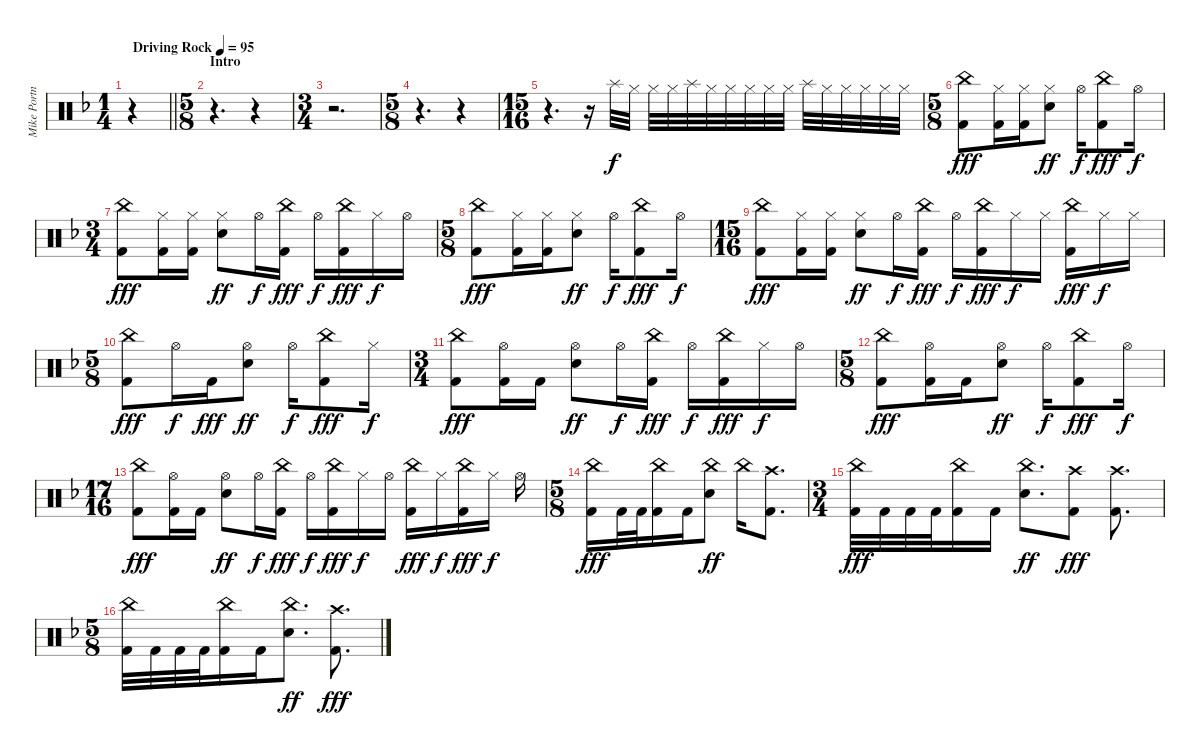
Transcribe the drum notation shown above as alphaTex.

\track ("Mike Portnoy" "Mike Portn") {instrument percussion}
\staff {score}
\articulation defaults
\ts (1 4)
\tempo (95 "Driving Rock")
\clef neutral
\barLineRight lightlight
\ks f
r.4{dy f} |
\ts (5 8)
\section ("" "Intro")
r.4{d} r.4 |
\ts (3 4)
r.2{d} |
\ts (5 8)
r.4{d} r.4 |
\ts (15 16)
r.4{d} r.16 "Splash (hit)".32 "Hi-Hat (closed)".32 "Hi-Hat (closed)".32 "Hi-Hat (closed)".32 "Splash (hit)".32 "Hi-Hat (closed)".32 "Hi-Hat (closed)".32 "Hi-Hat (closed)".32 "Hi-Hat (closed)".32 "Hi-Hat (closed)".32 "Splash (hit)".32 "Hi-Hat (closed)".32 "Hi-Hat (closed)".32 "Hi-Hat (closed)".32 "Hi-Hat (closed)".32 "Hi-Hat (closed)".32 |
\ts (5 8)
("China (hit)" "Kick (hit) 2").8{dy fff} ("Hi-Hat (closed)" "Kick (hit) 2").16 ("Hi-Hat (closed)" "Kick (hit) 2").16 ("Hi-Hat (closed)" "Electric Snare (hit)").8{dy ff} "Hi-Hat (open)".16{dy f} ("China (hit)" "Kick (hit) 2").8{dy fff} "Hi-Hat (open)".16{dy f} |
\ts (3 4)
("China (hit)" "Kick (hit) 2").8{dy fff} ("Hi-Hat (closed)" "Kick (hit) 2").16 ("Hi-Hat (closed)" "Kick (hit) 2").16 ("Hi-Hat (closed)" "Electric Snare (hit)").8{dy ff} "Hi-Hat (open)".16{dy f} ("China (hit)" "Kick (hit) 2").16{dy fff} "Hi-Hat (open)".16{dy f} ("China (hit)" "Kick (hit) 2").16{dy fff} "Hi-Hat (closed)".16{dy f} "Hi-Hat (open)".16 |
\ts (5 8)
("China (hit)" "Kick (hit) 2").8{dy fff} ("Hi-Hat (closed)" "Kick (hit) 2").16 ("Hi-Hat (closed)" "Kick (hit) 2").16 ("Hi-Hat (closed)" "Electric Snare (hit)").8{dy ff} "Hi-Hat (open)".16{dy f} ("China (hit)" "Kick (hit) 2").8{dy fff} "Hi-Hat (open)".16{dy f} |
\ts (15 16)
("China (hit)" "Kick (hit) 2").8{dy fff} ("Hi-Hat (closed)" "Kick (hit) 2").16 ("Hi-Hat (closed)" "Kick (hit) 2").16 ("Hi-Hat (closed)" "Electric Snare (hit)").8{dy ff} "Hi-Hat (open)".16{dy f} ("China (hit)" "Kick (hit) 2").16{dy fff} "Hi-Hat (open)".16{dy f} ("China (hit)" "Kick (hit) 2").16{dy fff} "Hi-Hat (closed)".16{dy f} "Hi-Hat (closed)".16 ("China (hit)" "Kick (hit) 2").16{dy fff} "Hi-Hat (closed)".16{dy f} "Hi-Hat (closed)".16 |
\ts (5 8)
("China (hit)" "Kick (hit) 2").8{dy fff} "Hi-Hat (open)".16{dy f} "Kick (hit) 2".16{dy fff} ("Hi-Hat (open)" "Electric Snare (hit)").8{dy ff} "Hi-Hat (open)".16{dy f} ("China (hit)" "Kick (hit) 2").8{dy fff} "Hi-Hat (closed)".16{dy f} |
\ts (3 4)
("China (hit)" "Kick (hit) 2").8{dy fff} ("Hi-Hat (open)" "Kick (hit) 2").16 "Kick (hit) 2".16 ("Hi-Hat (open)" "Electric Snare (hit)").8{dy ff} "Hi-Hat (open)".16{dy f} ("China (hit)" "Kick (hit) 2").16{dy fff} "Hi-Hat (open)".16{dy f} ("China (hit)" "Kick (hit) 2").16{dy fff} "Hi-Hat (closed)".16{dy f} "Hi-Hat (open)".16 |
\ts (5 8)
("China (hit)" "Kick (hit) 2").8{dy fff} ("Hi-Hat (open)" "Kick (hit) 2").16 "Kick (hit) 2".16 ("Hi-Hat (open)" "Electric Snare (hit)").8{dy ff} "Hi-Hat (open)".16{dy f} ("China (hit)" "Kick (hit) 2").8{dy fff} "Hi-Hat (open)".16{dy f} |
\ts (17 16)
("China (hit)" "Kick (hit) 2").8{dy fff} ("Hi-Hat (open)" "Kick (hit) 2").16 "Kick (hit) 2".16 ("Hi-Hat (open)" "Electric Snare (hit)").8{dy ff} "Hi-Hat (open)".16{dy f} ("China (hit)" "Kick (hit) 2").16{dy fff} "Hi-Hat (open)".16{dy f} ("China (hit)" "Kick (hit) 2").16{dy fff} "Hi-Hat (closed)".16{dy f} "Hi-Hat (open)".16 ("China (hit)" "Kick (hit) 2").16{dy fff} "Hi-Hat (closed)".16{dy f} ("China (hit)" "Kick (hit) 2").16{dy fff} "Hi-Hat (closed)".16{dy f} "Hi-Hat (open)".16 |
\ts (5 8)
("China (hit)" "Kick (hit) 2").16{dy fff} "Kick (hit) 2".32 "Kick (hit) 2".32 ("China (hit)" "Kick (hit) 2").16 "Kick (hit) 2".16 ("China (hit)" "Electric Snare (hit)").8{dy ff} "China (hit)".16 ("Crash high (hit)" "Kick (hit) 2").8{d} |
\ts (3 4)
("China (hit)" "Kick (hit) 2").32{dy fff} "Kick (hit) 2".32 "Kick (hit) 2".32 "Kick (hit) 2".32 ("China (hit)" "Kick (hit) 2").16 "Kick (hit) 2".16 ("China (hit)" "Electric Snare (hit)").8{d dy ff} ("Crash high (hit)" "Kick (hit) 2").8{dy fff} ("Crash high (hit)" "Kick (hit) 2").8{d} |
\ts (5 8)
("China (hit)" "Kick (hit) 2").32 "Kick (hit) 2".32 "Kick (hit) 2".32 "Kick (hit) 2".32 ("China (hit)" "Kick (hit) 2").16 "Kick (hit) 2".16 ("China (hit)" "Electric Snare (hit)").8{d dy ff} ("Crash high (hit)" "Kick (hit) 2").8{d dy fff}
